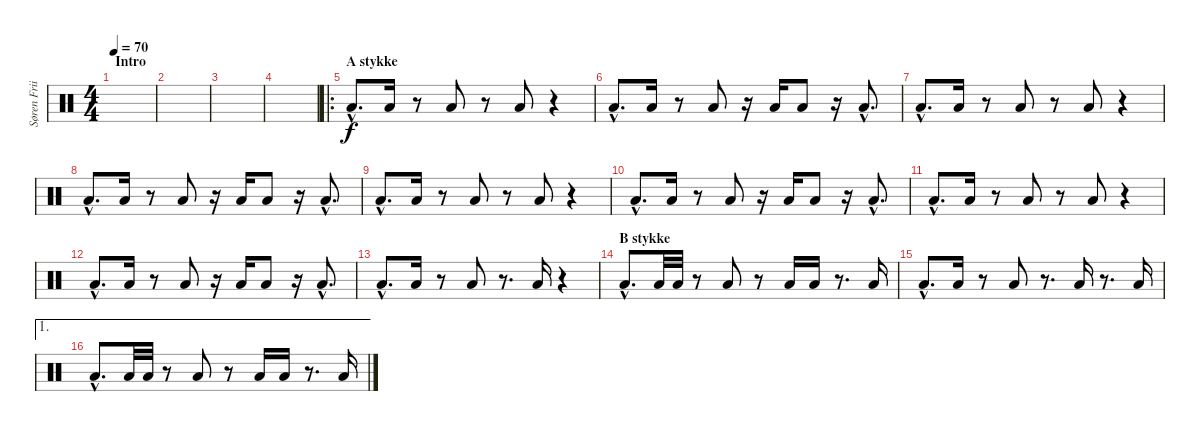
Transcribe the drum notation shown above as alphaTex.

\track ("Søren Friis (Floor Drum)" "Søren Frii") {instrument percussion}
\staff {score}
\articulation defaults
\ts (4 4)
\section ("" "Intro")
\tempo 70
\clef neutral
\ks c
|
|
|
|
\ro
\section ("" "A stykke")
"Low Floor Tom (hit)"{hac}.8{d} "Low Floor Tom (hit)".16 r.8 "Low Floor Tom (hit)".8 r.8 "Low Floor Tom (hit)".8 r.4 |
"Low Floor Tom (hit)"{hac}.8{d} "Low Floor Tom (hit)".16 r.8 "Low Floor Tom (hit)".8 r.16 "Low Floor Tom (hit)".16 "Low Floor Tom (hit)".8 r.16 "Low Floor Tom (hit)"{hac}.8{d} |
"Low Floor Tom (hit)"{hac}.8{d} "Low Floor Tom (hit)".16 r.8 "Low Floor Tom (hit)".8 r.8 "Low Floor Tom (hit)".8 r.4 |
"Low Floor Tom (hit)"{hac}.8{d} "Low Floor Tom (hit)".16 r.8 "Low Floor Tom (hit)".8 r.16 "Low Floor Tom (hit)".16 "Low Floor Tom (hit)".8 r.16 "Low Floor Tom (hit)"{hac}.8{d} |
"Low Floor Tom (hit)"{hac}.8{d} "Low Floor Tom (hit)".16 r.8 "Low Floor Tom (hit)".8 r.8 "Low Floor Tom (hit)".8 r.4 |
"Low Floor Tom (hit)"{hac}.8{d} "Low Floor Tom (hit)".16 r.8 "Low Floor Tom (hit)".8 r.16 "Low Floor Tom (hit)".16 "Low Floor Tom (hit)".8 r.16 "Low Floor Tom (hit)"{hac}.8{d} |
"Low Floor Tom (hit)"{hac}.8{d} "Low Floor Tom (hit)".16 r.8 "Low Floor Tom (hit)".8 r.8 "Low Floor Tom (hit)".8 r.4 |
"Low Floor Tom (hit)"{hac}.8{d} "Low Floor Tom (hit)".16 r.8 "Low Floor Tom (hit)".8 r.16 "Low Floor Tom (hit)".16 "Low Floor Tom (hit)".8 r.16 "Low Floor Tom (hit)"{hac}.8{d} |
"Low Floor Tom (hit)"{hac}.8{d} "Low Floor Tom (hit)".16 r.8 "Low Floor Tom (hit)".8 r.8{d} "Low Floor Tom (hit)".16 r.4 |
\section ("" "B stykke")
"Low Floor Tom (hit)"{hac}.8{d} "Low Floor Tom (hit)".32 "Low Floor Tom (hit)".32 r.8 "Low Floor Tom (hit)".8 r.8 "Low Floor Tom (hit)".16 "Low Floor Tom (hit)".16 r.8{d} "Low Floor Tom (hit)".16 |
"Low Floor Tom (hit)"{hac}.8{d} "Low Floor Tom (hit)".16 r.8 "Low Floor Tom (hit)".8 r.8{d} "Low Floor Tom (hit)".16 r.8{d} "Low Floor Tom (hit)".16 |
\ae 1 "Low Floor Tom (hit)"{hac}.8{d} "Low Floor Tom (hit)".32 "Low Floor Tom (hit)".32
r.8 "Low Floor Tom (hit)".8 r.8 "Low Floor Tom (hit)".16 "Low Floor Tom (hit)".16 r.8{d} "Low Floor Tom (hit)".16
